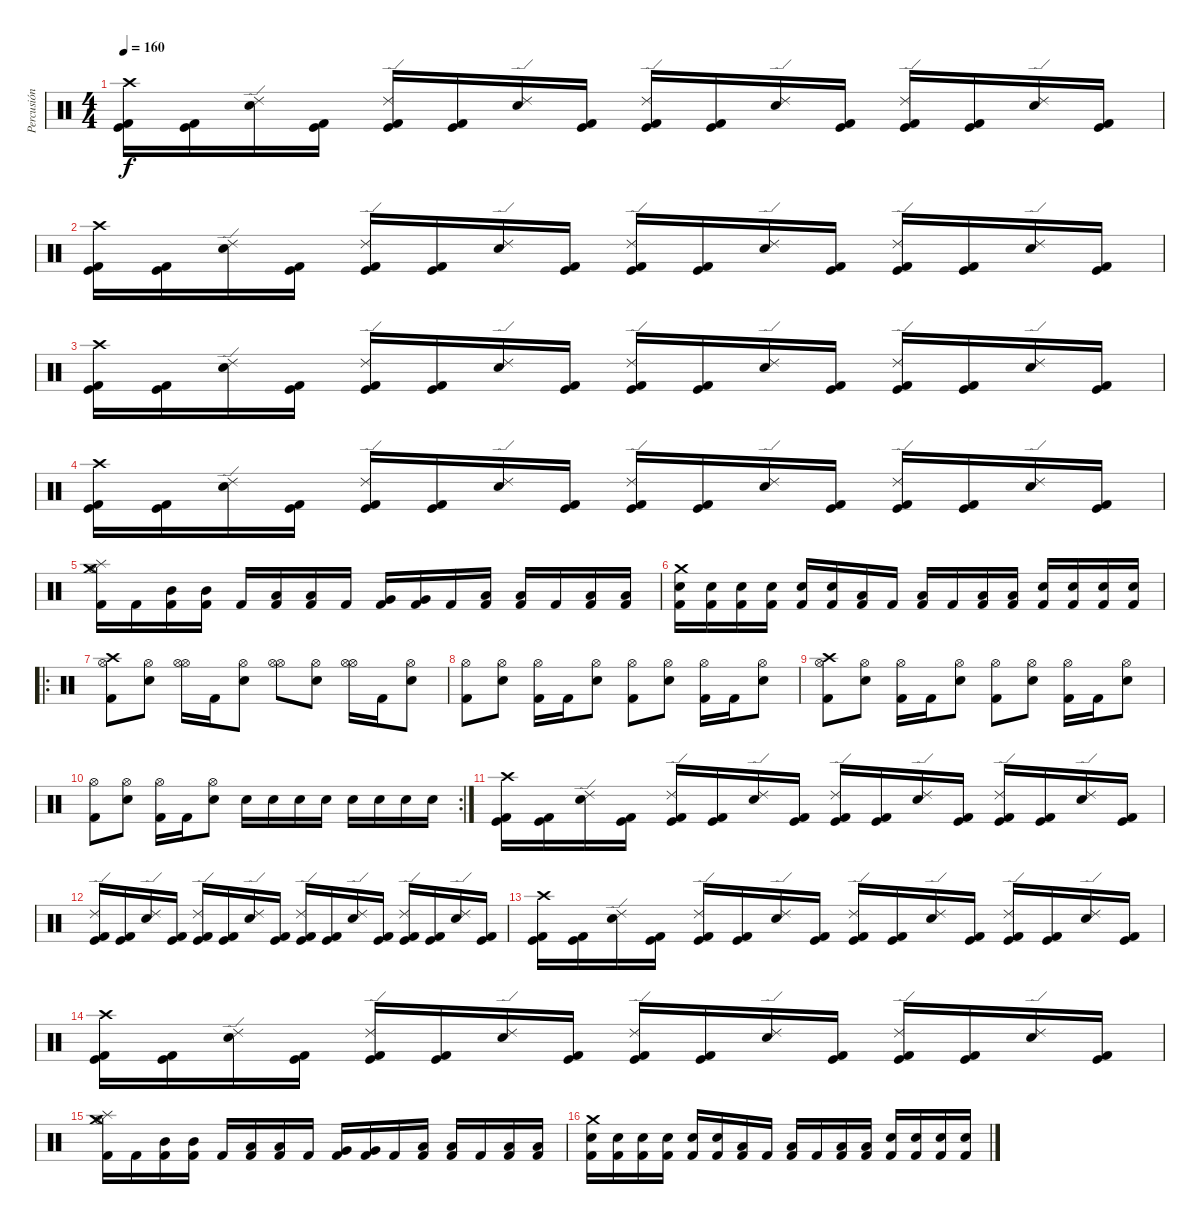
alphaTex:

\track ("Percusión" "Percusión") {instrument percussion}
\staff {score}
\articulation defaults
\ts (4 4)
\tempo 160
\clef neutral
\ks c
("Kick (hit)" "Kick (hit) 2" "Crash high (hit)").16{dy f} ("Kick (hit)" "Kick (hit) 2").16 ("Electric Snare (hit)" "Ride (edge) 2").16 ("Kick (hit)" "Kick (hit) 2").16 ("Kick (hit)" "Kick (hit) 2" "Ride (edge) 2").16 ("Kick (hit)" "Kick (hit) 2").16 ("Electric Snare (hit)" "Ride (edge) 2").16 ("Kick (hit)" "Kick (hit) 2").16 ("Kick (hit)" "Kick (hit) 2" "Ride (edge) 2").16 ("Kick (hit)" "Kick (hit) 2").16 ("Electric Snare (hit)" "Ride (edge) 2").16 ("Kick (hit)" "Kick (hit) 2").16 ("Kick (hit)" "Kick (hit) 2" "Ride (edge) 2").16 ("Kick (hit)" "Kick (hit) 2").16 ("Electric Snare (hit)" "Ride (edge) 2").16 ("Kick (hit)" "Kick (hit) 2").16 |
("Kick (hit)" "Kick (hit) 2" "Crash high (hit)").16 ("Kick (hit)" "Kick (hit) 2").16 ("Electric Snare (hit)" "Ride (edge) 2").16 ("Kick (hit)" "Kick (hit) 2").16 ("Kick (hit)" "Kick (hit) 2" "Ride (edge) 2").16 ("Kick (hit)" "Kick (hit) 2").16 ("Electric Snare (hit)" "Ride (edge) 2").16 ("Kick (hit)" "Kick (hit) 2").16 ("Kick (hit)" "Kick (hit) 2" "Ride (edge) 2").16 ("Kick (hit)" "Kick (hit) 2").16 ("Electric Snare (hit)" "Ride (edge) 2").16 ("Kick (hit)" "Kick (hit) 2").16 ("Kick (hit)" "Kick (hit) 2" "Ride (edge) 2").16 ("Kick (hit)" "Kick (hit) 2").16 ("Electric Snare (hit)" "Ride (edge) 2").16 ("Kick (hit)" "Kick (hit) 2").16 |
("Kick (hit)" "Kick (hit) 2" "Crash high (hit)").16 ("Kick (hit)" "Kick (hit) 2").16 ("Electric Snare (hit)" "Ride (edge) 2").16 ("Kick (hit)" "Kick (hit) 2").16 ("Kick (hit)" "Kick (hit) 2" "Ride (edge) 2").16 ("Kick (hit)" "Kick (hit) 2").16 ("Electric Snare (hit)" "Ride (edge) 2").16 ("Kick (hit)" "Kick (hit) 2").16 ("Kick (hit)" "Kick (hit) 2" "Ride (edge) 2").16 ("Kick (hit)" "Kick (hit) 2").16 ("Electric Snare (hit)" "Ride (edge) 2").16 ("Kick (hit)" "Kick (hit) 2").16 ("Kick (hit)" "Kick (hit) 2" "Ride (edge) 2").16 ("Kick (hit)" "Kick (hit) 2").16 ("Electric Snare (hit)" "Ride (edge) 2").16 ("Kick (hit)" "Kick (hit) 2").16 |
("Kick (hit)" "Kick (hit) 2" "Crash high (hit)").16 ("Kick (hit)" "Kick (hit) 2").16 ("Electric Snare (hit)" "Ride (edge) 2").16 ("Kick (hit)" "Kick (hit) 2").16 ("Kick (hit)" "Kick (hit) 2" "Ride (edge) 2").16 ("Kick (hit)" "Kick (hit) 2").16 ("Electric Snare (hit)" "Ride (edge) 2").16 ("Kick (hit)" "Kick (hit) 2").16 ("Kick (hit)" "Kick (hit) 2" "Ride (edge) 2").16 ("Kick (hit)" "Kick (hit) 2").16 ("Electric Snare (hit)" "Ride (edge) 2").16 ("Kick (hit)" "Kick (hit) 2").16 ("Kick (hit)" "Kick (hit) 2" "Ride (edge) 2").16 ("Kick (hit)" "Kick (hit) 2").16 ("Electric Snare (hit)" "Ride (edge) 2").16 ("Kick (hit)" "Kick (hit) 2").16 |
("Splash (hit)" "Hi-Hat (open)" "Crash medium (hit)" "Kick (hit) 2").16 "Kick (hit) 2".16 ("Mid Tom (hit)" "Kick (hit) 2").16 ("Mid Tom (hit)" "Kick (hit) 2").16 "Kick (hit) 2".16 ("Low Tom (hit)" "Kick (hit) 2").16 ("Low Tom (hit)" "Kick (hit) 2").16 "Kick (hit) 2".16 ("Very Low Tom (hit)" "Kick (hit) 2").16 ("Very Low Tom (hit)" "Kick (hit) 2").16 "Kick (hit) 2".16 ("Low Floor Tom (hit)" "Kick (hit) 2").16 ("Low Floor Tom (hit)" "Kick (hit) 2").16 "Kick (hit) 2".16 ("Low Floor Tom (hit)" "Kick (hit) 2").16 ("Low Floor Tom (hit)" "Kick (hit) 2").16 |
("Kick (hit) 2" "Electric Snare (hit)" "Crash medium (hit)").16 ("Kick (hit) 2" "Electric Snare (hit)").16 ("Kick (hit) 2" "Electric Snare (hit)").16 ("Kick (hit) 2" "Electric Snare (hit)").16 ("Kick (hit) 2" "Electric Snare (hit)").16 ("Kick (hit) 2" "Electric Snare (hit)").16 ("Kick (hit) 2" "Low Tom (hit)").16 "Kick (hit) 2".16 ("Kick (hit) 2" "Low Tom (hit)").16 "Kick (hit) 2".16 ("Kick (hit) 2" "Low Tom (hit)").16 ("Kick (hit) 2" "Low Tom (hit)").16 ("Kick (hit) 2" "Electric Snare (hit)").16 ("Kick (hit) 2" "Electric Snare (hit)").16 ("Kick (hit) 2" "Electric Snare (hit)").16 ("Kick (hit) 2" "Electric Snare (hit)").16 |
\ro
("Hi-Hat (open)" "Kick (hit) 2" "Crash high (hit)").8 ("Hi-Hat (open)" "Electric Snare (hit)").8 ("Hi-Hat (open)" "Hi-Hat (open)").16 "Kick (hit) 2".16 ("Hi-Hat (open)" "Electric Snare (hit)").8 ("Hi-Hat (open)" "Hi-Hat (open)").8 ("Hi-Hat (open)" "Electric Snare (hit)").8 ("Hi-Hat (open)" "Hi-Hat (open)").16 "Kick (hit) 2".16 ("Hi-Hat (open)" "Electric Snare (hit)").8 |
("Hi-Hat (open)" "Kick (hit) 2").8 ("Hi-Hat (open)" "Electric Snare (hit)").8 ("Hi-Hat (open)" "Kick (hit) 2").16 "Kick (hit) 2".16 ("Hi-Hat (open)" "Electric Snare (hit)").8 ("Hi-Hat (open)" "Kick (hit) 2").8 ("Hi-Hat (open)" "Electric Snare (hit)").8 ("Hi-Hat (open)" "Kick (hit) 2").16 "Kick (hit) 2".16 ("Hi-Hat (open)" "Electric Snare (hit)").8 |
("Hi-Hat (open)" "Kick (hit) 2" "Crash high (hit)").8 ("Hi-Hat (open)" "Electric Snare (hit)").8 ("Hi-Hat (open)" "Kick (hit) 2").16 "Kick (hit) 2".16 ("Hi-Hat (open)" "Electric Snare (hit)").8 ("Hi-Hat (open)" "Kick (hit) 2").8 ("Hi-Hat (open)" "Electric Snare (hit)").8 ("Hi-Hat (open)" "Kick (hit) 2").16 "Kick (hit) 2".16 ("Hi-Hat (open)" "Electric Snare (hit)").8 |
\rc 2
("Hi-Hat (open)" "Kick (hit) 2").8 ("Hi-Hat (open)" "Electric Snare (hit)").8 ("Hi-Hat (open)" "Kick (hit) 2").16 "Kick (hit) 2".16 ("Hi-Hat (open)" "Electric Snare (hit)").8 "Electric Snare (hit)".16 "Electric Snare (hit)".16 "Electric Snare (hit)".16 "Electric Snare (hit)".16 "Electric Snare (hit)".16 "Electric Snare (hit)".16 "Electric Snare (hit)".16 "Electric Snare (hit)".16 |
("Kick (hit)" "Kick (hit) 2" "Crash high (hit)").16 ("Kick (hit)" "Kick (hit) 2").16 ("Electric Snare (hit)" "Ride (edge) 2").16 ("Kick (hit)" "Kick (hit) 2").16 ("Kick (hit)" "Kick (hit) 2" "Ride (edge) 2").16 ("Kick (hit)" "Kick (hit) 2").16 ("Electric Snare (hit)" "Ride (edge) 2").16 ("Kick (hit)" "Kick (hit) 2").16 ("Kick (hit)" "Kick (hit) 2" "Ride (edge) 2").16 ("Kick (hit)" "Kick (hit) 2").16 ("Electric Snare (hit)" "Ride (edge) 2").16 ("Kick (hit)" "Kick (hit) 2").16 ("Kick (hit)" "Kick (hit) 2" "Ride (edge) 2").16 ("Kick (hit)" "Kick (hit) 2").16 ("Electric Snare (hit)" "Ride (edge) 2").16 ("Kick (hit)" "Kick (hit) 2").16 |
("Kick (hit)" "Kick (hit) 2" "Ride (edge) 2").16 ("Kick (hit)" "Kick (hit) 2").16 ("Electric Snare (hit)" "Ride (edge) 2").16 ("Kick (hit)" "Kick (hit) 2").16 ("Kick (hit)" "Kick (hit) 2" "Ride (edge) 2").16 ("Kick (hit)" "Kick (hit) 2").16 ("Electric Snare (hit)" "Ride (edge) 2").16 ("Kick (hit)" "Kick (hit) 2").16 ("Kick (hit)" "Kick (hit) 2" "Ride (edge) 2").16 ("Kick (hit)" "Kick (hit) 2").16 ("Electric Snare (hit)" "Ride (edge) 2").16 ("Kick (hit)" "Kick (hit) 2").16 ("Kick (hit)" "Kick (hit) 2" "Ride (edge) 2").16 ("Kick (hit)" "Kick (hit) 2").16 ("Electric Snare (hit)" "Ride (edge) 2").16 ("Kick (hit)" "Kick (hit) 2").16 |
("Kick (hit)" "Kick (hit) 2" "Crash high (hit)").16 ("Kick (hit)" "Kick (hit) 2").16 ("Electric Snare (hit)" "Ride (edge) 2").16 ("Kick (hit)" "Kick (hit) 2").16 ("Kick (hit)" "Kick (hit) 2" "Ride (edge) 2").16 ("Kick (hit)" "Kick (hit) 2").16 ("Electric Snare (hit)" "Ride (edge) 2").16 ("Kick (hit)" "Kick (hit) 2").16 ("Kick (hit)" "Kick (hit) 2" "Ride (edge) 2").16 ("Kick (hit)" "Kick (hit) 2").16 ("Electric Snare (hit)" "Ride (edge) 2").16 ("Kick (hit)" "Kick (hit) 2").16 ("Kick (hit)" "Kick (hit) 2" "Ride (edge) 2").16 ("Kick (hit)" "Kick (hit) 2").16 ("Electric Snare (hit)" "Ride (edge) 2").16 ("Kick (hit)" "Kick (hit) 2").16 |
("Kick (hit)" "Kick (hit) 2" "Crash high (hit)").16 ("Kick (hit)" "Kick (hit) 2").16 ("Electric Snare (hit)" "Ride (edge) 2").16 ("Kick (hit)" "Kick (hit) 2").16 ("Kick (hit)" "Kick (hit) 2" "Ride (edge) 2").16 ("Kick (hit)" "Kick (hit) 2").16 ("Electric Snare (hit)" "Ride (edge) 2").16 ("Kick (hit)" "Kick (hit) 2").16 ("Kick (hit)" "Kick (hit) 2" "Ride (edge) 2").16 ("Kick (hit)" "Kick (hit) 2").16 ("Electric Snare (hit)" "Ride (edge) 2").16 ("Kick (hit)" "Kick (hit) 2").16 ("Kick (hit)" "Kick (hit) 2" "Ride (edge) 2").16 ("Kick (hit)" "Kick (hit) 2").16 ("Electric Snare (hit)" "Ride (edge) 2").16 ("Kick (hit)" "Kick (hit) 2").16 |
("Splash (hit)" "Hi-Hat (open)" "Crash medium (hit)" "Kick (hit) 2").16 "Kick (hit) 2".16 ("Mid Tom (hit)" "Kick (hit) 2").16 ("Mid Tom (hit)" "Kick (hit) 2").16 "Kick (hit) 2".16 ("Low Tom (hit)" "Kick (hit) 2").16 ("Low Tom (hit)" "Kick (hit) 2").16 "Kick (hit) 2".16 ("Very Low Tom (hit)" "Kick (hit) 2").16 ("Very Low Tom (hit)" "Kick (hit) 2").16 "Kick (hit) 2".16 ("Low Floor Tom (hit)" "Kick (hit) 2").16 ("Low Floor Tom (hit)" "Kick (hit) 2").16 "Kick (hit) 2".16 ("Low Floor Tom (hit)" "Kick (hit) 2").16 ("Low Floor Tom (hit)" "Kick (hit) 2").16 |
("Kick (hit) 2" "Electric Snare (hit)" "Crash medium (hit)").16 ("Kick (hit) 2" "Electric Snare (hit)").16 ("Kick (hit) 2" "Electric Snare (hit)").16 ("Kick (hit) 2" "Electric Snare (hit)").16 ("Kick (hit) 2" "Electric Snare (hit)").16 ("Kick (hit) 2" "Electric Snare (hit)").16 ("Kick (hit) 2" "Low Tom (hit)").16 "Kick (hit) 2".16 ("Kick (hit) 2" "Low Tom (hit)").16 "Kick (hit) 2".16 ("Kick (hit) 2" "Low Tom (hit)").16 ("Kick (hit) 2" "Low Tom (hit)").16 ("Kick (hit) 2" "Electric Snare (hit)").16 ("Kick (hit) 2" "Electric Snare (hit)").16 ("Kick (hit) 2" "Electric Snare (hit)").16 ("Kick (hit) 2" "Electric Snare (hit)").16
